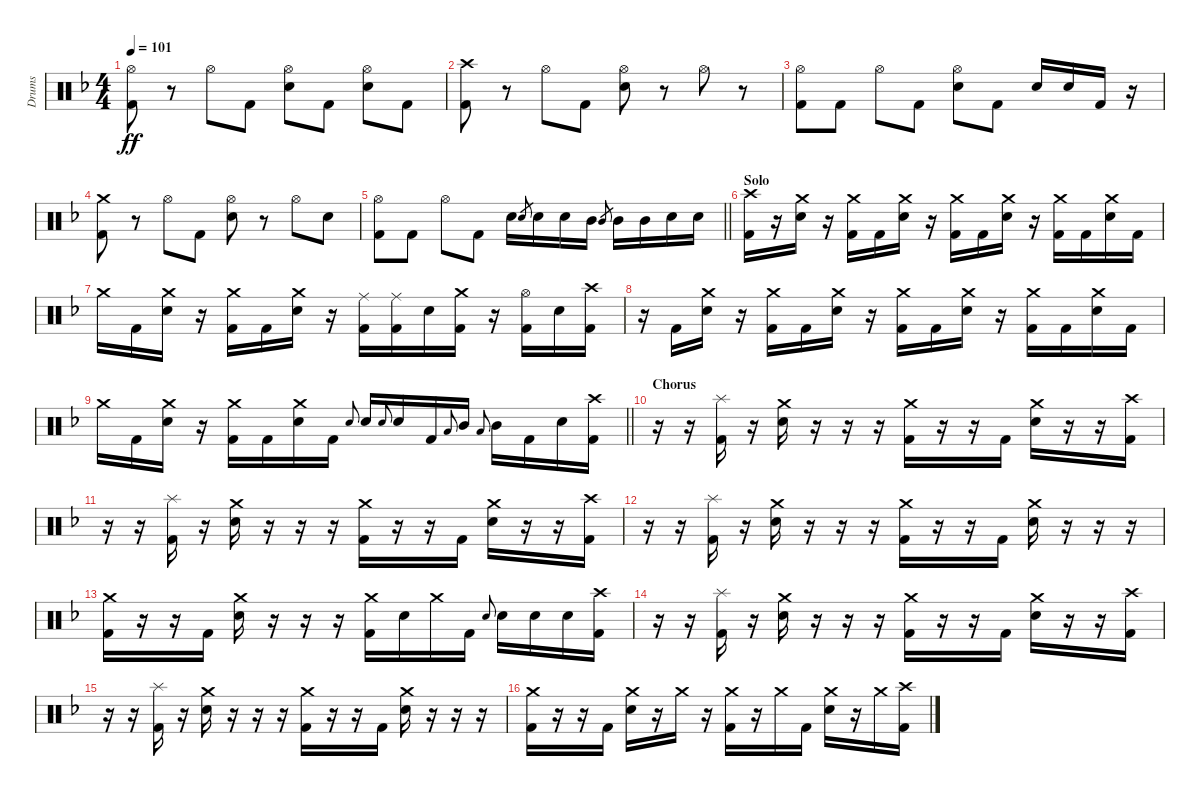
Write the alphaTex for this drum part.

\track ("Drums" "Drums") {instrument percussion}
\staff {score}
\articulation defaults
\ts (4 4)
\tempo 101
\clef neutral
\ks dminor
("Hi-Hat (open)" "Kick (hit) 2").8{dy ff} r.8 "Hi-Hat (open)".8 "Kick (hit) 2".8 ("Hi-Hat (open)" "Electric Snare (hit)").8 "Kick (hit) 2".8 ("Hi-Hat (open)" "Electric Snare (hit)").8 "Kick (hit) 2".8 |
("Crash high (hit)" "Kick (hit) 2").8 r.8 "Hi-Hat (open)".8 "Kick (hit) 2".8 ("Hi-Hat (open)" "Electric Snare (hit)").8 r.8 "Hi-Hat (open)".8 r.8 |
("Hi-Hat (open)" "Kick (hit) 2").8 "Kick (hit) 2".8 "Hi-Hat (open)".8 "Kick (hit) 2".8 ("Hi-Hat (open)" "Electric Snare (hit)").8 "Kick (hit) 2".8 "Electric Snare (hit)".16 "Electric Snare (hit)".16 "Kick (hit) 2".16 r.16 |
("Crash medium (hit)" "Kick (hit) 2").8 r.8 "Hi-Hat (open)".8 "Kick (hit) 2".8 ("Hi-Hat (open)" "Electric Snare (hit)").8 r.8 "Hi-Hat (open)".8 "Electric Snare (hit)".8 |
\barLineRight lightlight
("Hi-Hat (open)" "Kick (hit) 2").8 "Kick (hit) 2".8 "Hi-Hat (open)".8 "Kick (hit) 2".8 "Electric Snare (hit)".16 "Electric Snare (hit)".8{gr} "Electric Snare (hit)".16 "Electric Snare (hit)".16 "Mid Tom (hit)".16 "Mid Tom (hit)".8{gr} "Mid Tom (hit)".16 "Mid Tom (hit)".16 "Electric Snare (hit)".16 "Electric Snare (hit)".16 |
\section ("" "Solo")
("Crash high (hit)" "Kick (hit) 2").16 r.16 ("Crash medium (hit)" "Electric Snare (hit)").16 r.16 ("Crash medium (hit)" "Kick (hit) 2").16 "Kick (hit) 2".16 ("Crash medium (hit)" "Electric Snare (hit)").16 r.16 ("Crash medium (hit)" "Kick (hit) 2").16 "Kick (hit) 2".16 ("Crash medium (hit)" "Electric Snare (hit)").16 r.16 ("Crash medium (hit)" "Kick (hit) 2").16 "Kick (hit) 2".16 ("Crash medium (hit)" "Electric Snare (hit)").16 "Kick (hit) 2".16 |
"Crash medium (hit)".16 "Kick (hit) 2".16 ("Crash medium (hit)" "Electric Snare (hit)").16 r.16 ("Crash medium (hit)" "Kick (hit) 2").16 "Kick (hit) 2".16 ("Crash medium (hit)" "Electric Snare (hit)").16 r.16 ("Ride (middle)" "Kick (hit) 2").16 ("Ride (middle)" "Kick (hit) 2").16 "Electric Snare (hit)".16 ("Crash medium (hit)" "Kick (hit) 2").16 r.16 ("Hi-Hat (open)" "Kick (hit) 2").16 "Electric Snare (hit)".16 ("Crash high (hit)" "Kick (hit) 2").16 |
r.16 "Kick (hit) 2".16 ("Crash medium (hit)" "Electric Snare (hit)").16 r.16 ("Crash medium (hit)" "Kick (hit) 2").16 "Kick (hit) 2".16 ("Crash medium (hit)" "Electric Snare (hit)").16 r.16 ("Crash medium (hit)" "Kick (hit) 2").16 "Kick (hit) 2".16 ("Crash medium (hit)" "Electric Snare (hit)").16 r.16 ("Crash medium (hit)" "Kick (hit) 2").16 "Kick (hit) 2".16 ("Crash medium (hit)" "Electric Snare (hit)").16 "Kick (hit) 2".16 |
\barLineRight lightlight "Crash medium (hit)".16 "Kick (hit) 2".16
("Crash medium (hit)" "Electric Snare (hit)").16 r.16 ("Crash medium (hit)" "Kick (hit) 2").16 "Kick (hit) 2".16 ("Crash medium (hit)" "Electric Snare (hit)").16 "Kick (hit) 2".16 "Electric Snare (hit)".8{gr onbeat} "Electric Snare (hit)".16 "Electric Snare (hit)".8{gr onbeat} "Electric Snare (hit)".16 "Kick (hit) 2".16 "Low Tom (hit)".8{gr onbeat} "Mid Tom (hit)".16 "Low Tom (hit)".8{gr onbeat} "Mid Tom (hit)".16 "Kick (hit) 2".16 "Electric Snare (hit)".16 ("Crash high (hit)" "Kick (hit) 2").16 |
\section ("" "Chorus")
r.16 r.16 ("Splash (hit)" "Kick (hit) 2").16 r.16 ("Crash medium (hit)" "Electric Snare (hit)").16 r.16 r.16 r.16 ("Crash medium (hit)" "Kick (hit) 2").16 r.16 r.16 "Kick (hit) 2".16 ("Crash medium (hit)" "Electric Snare (hit)").16 r.16 r.16 ("Crash high (hit)" "Kick (hit) 2").16 |
r.16 r.16 ("Splash (hit)" "Kick (hit) 2").16 r.16 ("Crash medium (hit)" "Electric Snare (hit)").16 r.16 r.16 r.16 ("Crash medium (hit)" "Kick (hit) 2").16 r.16 r.16 "Kick (hit) 2".16 ("Crash medium (hit)" "Electric Snare (hit)").16 r.16 r.16 ("Crash high (hit)" "Kick (hit) 2").16 |
r.16 r.16 ("Splash (hit)" "Kick (hit) 2").16 r.16 ("Crash medium (hit)" "Electric Snare (hit)").16 r.16 r.16 r.16 ("Crash medium (hit)" "Kick (hit) 2").16 r.16 r.16 "Kick (hit) 2".16 ("Crash medium (hit)" "Electric Snare (hit)").16 r.16 r.16 r.16 |
("Crash medium (hit)" "Kick (hit) 2").16 r.16 r.16 "Kick (hit) 2".16 ("Crash medium (hit)" "Electric Snare (hit)").16 r.16 r.16 r.16 ("Crash medium (hit)" "Kick (hit) 2").16 "Electric Snare (hit)".16 "Crash medium (hit)".16 "Kick (hit) 2".16 "Electric Snare (hit)".8{gr onbeat} "Electric Snare (hit)".16 "Electric Snare (hit)".16 "Electric Snare (hit)".16 ("Crash high (hit)" "Kick (hit) 2").16 |
r.16 r.16 ("Splash (hit)" "Kick (hit) 2").16 r.16 ("Crash medium (hit)" "Electric Snare (hit)").16 r.16 r.16 r.16 ("Crash medium (hit)" "Kick (hit) 2").16 r.16 r.16 "Kick (hit) 2".16 ("Crash medium (hit)" "Electric Snare (hit)").16 r.16 r.16 ("Crash high (hit)" "Kick (hit) 2").16 |
r.16 r.16 ("Splash (hit)" "Kick (hit) 2").16 r.16 ("Crash medium (hit)" "Electric Snare (hit)").16 r.16 r.16 r.16 ("Crash medium (hit)" "Kick (hit) 2").16 r.16 r.16 "Kick (hit) 2".16 ("Crash medium (hit)" "Electric Snare (hit)").16 r.16 r.16 r.16 |
("Crash medium (hit)" "Kick (hit) 2").16 r.16 r.16 "Kick (hit) 2".16 ("Crash medium (hit)" "Electric Snare (hit)").16 r.16 "Crash medium (hit)".16 r.16 ("Crash medium (hit)" "Kick (hit) 2").16 r.16 "Crash medium (hit)".16 "Kick (hit) 2".16 ("Crash medium (hit)" "Electric Snare (hit)").16 r.16 "Crash medium (hit)".16 ("Crash high (hit)" "Kick (hit) 2").16
